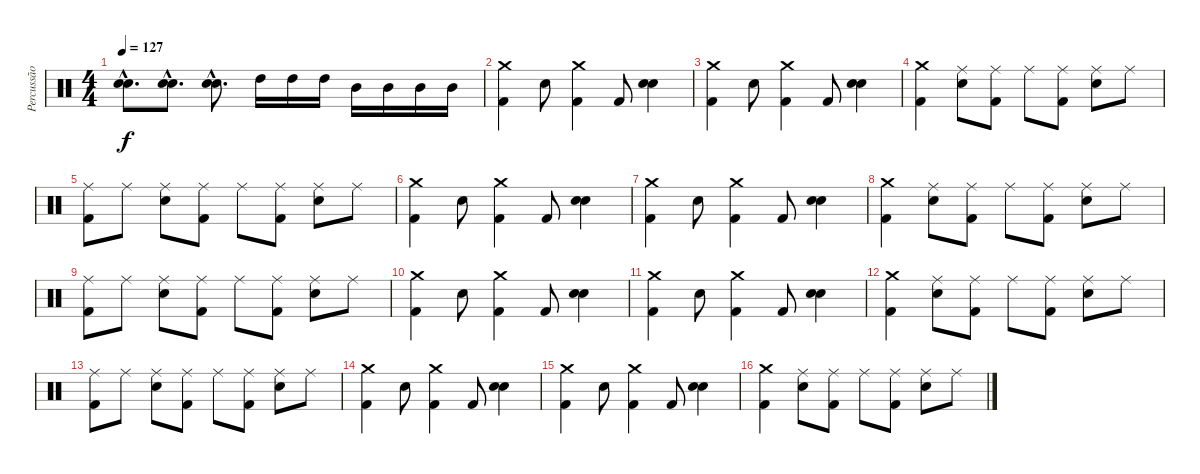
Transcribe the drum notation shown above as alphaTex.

\track ("Percussão" "Percussão") {instrument percussion}
\staff {score}
\articulation defaults
\ts (4 4)
\tempo 127
\clef neutral
\ks c
("Electric Snare (hit)"{hac} "Electric Snare (hit)"{hac}).8{d dy f} ("Electric Snare (hit)"{hac} "Electric Snare (hit)"{hac}).8{d} ("Electric Snare (hit)"{hac} "Electric Snare (hit)"{hac}).8{d} "High Tom (hit)".16 "High Tom (hit)".16 "High Tom (hit)".16 "Mid Tom (hit)".16 "Mid Tom (hit)".16 "Mid Tom (hit)".16 "Mid Tom (hit)".16 |
("Crash medium (hit)" "Kick (hit) 2").4 "Electric Snare (hit)".8 ("Crash medium (hit)" "Kick (hit) 2").4 "Kick (hit) 2".8 ("Electric Snare (hit)" "Electric Snare (hit)").4 |
("Crash medium (hit)" "Kick (hit) 2").4 "Electric Snare (hit)".8 ("Crash medium (hit)" "Kick (hit) 2").4 "Kick (hit) 2".8 ("Electric Snare (hit)" "Electric Snare (hit)").4 |
("Crash medium (hit)" "Kick (hit) 2").4 ("Ride (middle)" "Electric Snare (hit)").8 ("Ride (middle)" "Kick (hit) 2").8 "Ride (middle)".8 ("Ride (middle)" "Kick (hit) 2").8 ("Ride (middle)" "Electric Snare (hit)").8 "Ride (middle)".8 |
("Ride (middle)" "Kick (hit) 2").8 "Ride (middle)".8 ("Ride (middle)" "Electric Snare (hit)").8 ("Ride (middle)" "Kick (hit) 2").8 "Ride (middle)".8 ("Ride (middle)" "Kick (hit) 2").8 ("Ride (middle)" "Electric Snare (hit)").8 "Ride (middle)".8 |
("Crash medium (hit)" "Kick (hit) 2").4 "Electric Snare (hit)".8 ("Crash medium (hit)" "Kick (hit) 2").4 "Kick (hit) 2".8 ("Electric Snare (hit)" "Electric Snare (hit)").4 |
("Crash medium (hit)" "Kick (hit) 2").4 "Electric Snare (hit)".8 ("Crash medium (hit)" "Kick (hit) 2").4 "Kick (hit) 2".8 ("Electric Snare (hit)" "Electric Snare (hit)").4 |
("Crash medium (hit)" "Kick (hit) 2").4 ("Ride (middle)" "Electric Snare (hit)").8 ("Ride (middle)" "Kick (hit) 2").8 "Ride (middle)".8 ("Ride (middle)" "Kick (hit) 2").8 ("Ride (middle)" "Electric Snare (hit)").8 "Ride (middle)".8 |
("Ride (middle)" "Kick (hit) 2").8 "Ride (middle)".8 ("Ride (middle)" "Electric Snare (hit)").8 ("Ride (middle)" "Kick (hit) 2").8 "Ride (middle)".8 ("Ride (middle)" "Kick (hit) 2").8 ("Ride (middle)" "Electric Snare (hit)").8 "Ride (middle)".8 |
("Crash medium (hit)" "Kick (hit) 2").4 "Electric Snare (hit)".8 ("Crash medium (hit)" "Kick (hit) 2").4 "Kick (hit) 2".8 ("Electric Snare (hit)" "Electric Snare (hit)").4 |
("Crash medium (hit)" "Kick (hit) 2").4 "Electric Snare (hit)".8 ("Crash medium (hit)" "Kick (hit) 2").4 "Kick (hit) 2".8 ("Electric Snare (hit)" "Electric Snare (hit)").4 |
("Crash medium (hit)" "Kick (hit) 2").4 ("Ride (middle)" "Electric Snare (hit)").8 ("Ride (middle)" "Kick (hit) 2").8 "Ride (middle)".8 ("Ride (middle)" "Kick (hit) 2").8 ("Ride (middle)" "Electric Snare (hit)").8 "Ride (middle)".8 |
("Ride (middle)" "Kick (hit) 2").8 "Ride (middle)".8 ("Ride (middle)" "Electric Snare (hit)").8 ("Ride (middle)" "Kick (hit) 2").8 "Ride (middle)".8 ("Ride (middle)" "Kick (hit) 2").8 ("Ride (middle)" "Electric Snare (hit)").8 "Ride (middle)".8 |
("Crash medium (hit)" "Kick (hit) 2").4 "Electric Snare (hit)".8 ("Crash medium (hit)" "Kick (hit) 2").4 "Kick (hit) 2".8 ("Electric Snare (hit)" "Electric Snare (hit)").4 |
("Crash medium (hit)" "Kick (hit) 2").4 "Electric Snare (hit)".8 ("Crash medium (hit)" "Kick (hit) 2").4 "Kick (hit) 2".8 ("Electric Snare (hit)" "Electric Snare (hit)").4 |
("Crash medium (hit)" "Kick (hit) 2").4 ("Ride (middle)" "Electric Snare (hit)").8 ("Ride (middle)" "Kick (hit) 2").8 "Ride (middle)".8 ("Ride (middle)" "Kick (hit) 2").8 ("Ride (middle)" "Electric Snare (hit)").8 "Ride (middle)".8
